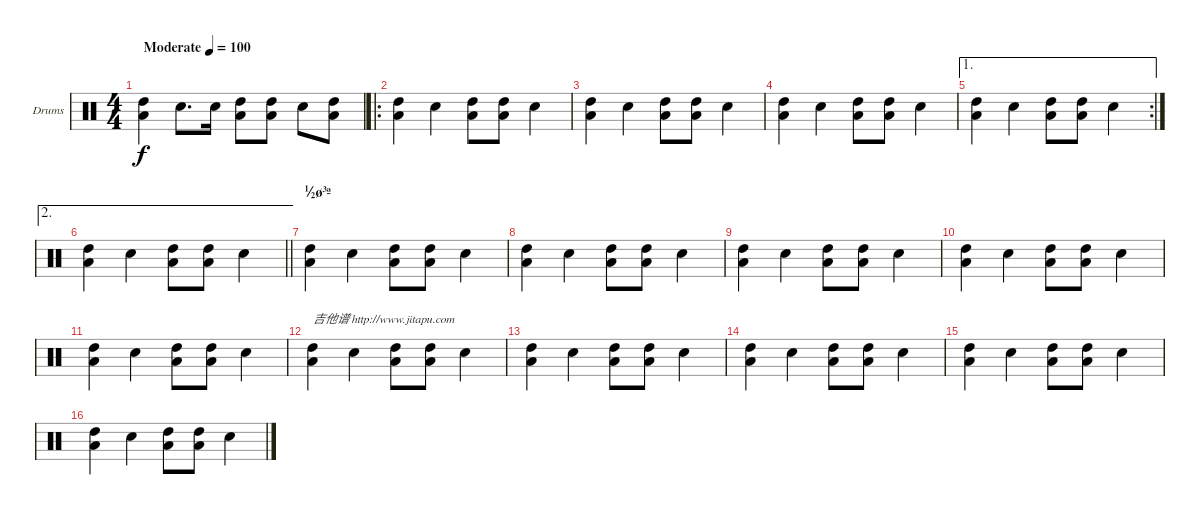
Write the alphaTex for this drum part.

\bracketExtendMode groupsimilarinstruments
\firstSystemTrackNameOrientation horizontal
\otherSystemsTrackNameOrientation horizontal
\track ("Drumkit" "Drums") {instrument percussion}
\staff {score}
\articulation defaults
\ts (4 4)
\beaming (8 2 2 2 2)
\tempo (100 "Moderate")
\clef neutral
\ks c
("High Tom (hit)" "Low Tom (hit)").4{dy f} "Snare (hit) 2".8{d} "Snare (hit) 2".16 ("High Tom (hit)" "Low Tom (hit)").8 ("High Tom (hit)" "Low Tom (hit)").8 "Snare (hit) 2".8 ("High Tom (hit)" "Low Tom (hit)").8 |
\ro
("High Tom (hit)" "Low Tom (hit)").4 "Snare (hit) 2".4 ("High Tom (hit)" "Low Tom (hit)").8 ("High Tom (hit)" "Low Tom (hit)").8 "Snare (hit) 2".4 |
("High Tom (hit)" "Low Tom (hit)").4 "Snare (hit) 2".4 ("High Tom (hit)" "Low Tom (hit)").8 ("High Tom (hit)" "Low Tom (hit)").8 "Snare (hit) 2".4 |
("High Tom (hit)" "Low Tom (hit)").4 "Snare (hit) 2".4 ("High Tom (hit)" "Low Tom (hit)").8 ("High Tom (hit)" "Low Tom (hit)").8 "Snare (hit) 2".4 |
\ae 1
\rc 2
("High Tom (hit)" "Low Tom (hit)").4 "Snare (hit) 2".4 ("High Tom (hit)" "Low Tom (hit)").8 ("High Tom (hit)" "Low Tom (hit)").8 "Snare (hit) 2".4 |
\ae 2
\barLineRight lightlight
("High Tom (hit)" "Low Tom (hit)").4 "Snare (hit) 2".4 ("High Tom (hit)" "Low Tom (hit)").8 ("High Tom (hit)" "Low Tom (hit)").8 "Snare (hit) 2".4 |
\section ("" "½ø³ª")
("High Tom (hit)" "Low Tom (hit)").4 "Snare (hit) 2".4 ("High Tom (hit)" "Low Tom (hit)").8 ("High Tom (hit)" "Low Tom (hit)").8 "Snare (hit) 2".4 |
("High Tom (hit)" "Low Tom (hit)").4 "Snare (hit) 2".4 ("High Tom (hit)" "Low Tom (hit)").8 ("High Tom (hit)" "Low Tom (hit)").8 "Snare (hit) 2".4 |
("High Tom (hit)" "Low Tom (hit)").4 "Snare (hit) 2".4 ("High Tom (hit)" "Low Tom (hit)").8 ("High Tom (hit)" "Low Tom (hit)").8 "Snare (hit) 2".4 |
("High Tom (hit)" "Low Tom (hit)").4 "Snare (hit) 2".4 ("High Tom (hit)" "Low Tom (hit)").8 ("High Tom (hit)" "Low Tom (hit)").8 "Snare (hit) 2".4 |
("High Tom (hit)" "Low Tom (hit)").4 "Snare (hit) 2".4 ("High Tom (hit)" "Low Tom (hit)").8 ("High Tom (hit)" "Low Tom (hit)").8 "Snare (hit) 2".4 |
("High Tom (hit)" "Low Tom (hit)").4{txt "吉他谱 http://www.jitapu.com"} "Snare (hit) 2".4 ("High Tom (hit)" "Low Tom (hit)").8 ("High Tom (hit)" "Low Tom (hit)").8 "Snare (hit) 2".4 |
("High Tom (hit)" "Low Tom (hit)").4 "Snare (hit) 2".4 ("High Tom (hit)" "Low Tom (hit)").8 ("High Tom (hit)" "Low Tom (hit)").8 "Snare (hit) 2".4 |
("High Tom (hit)" "Low Tom (hit)").4 "Snare (hit) 2".4 ("High Tom (hit)" "Low Tom (hit)").8 ("High Tom (hit)" "Low Tom (hit)").8 "Snare (hit) 2".4 |
("High Tom (hit)" "Low Tom (hit)").4 "Snare (hit) 2".4 ("High Tom (hit)" "Low Tom (hit)").8 ("High Tom (hit)" "Low Tom (hit)").8 "Snare (hit) 2".4 |
("High Tom (hit)" "Low Tom (hit)").4 "Snare (hit) 2".4 ("High Tom (hit)" "Low Tom (hit)").8 ("High Tom (hit)" "Low Tom (hit)").8 "Snare (hit) 2".4
